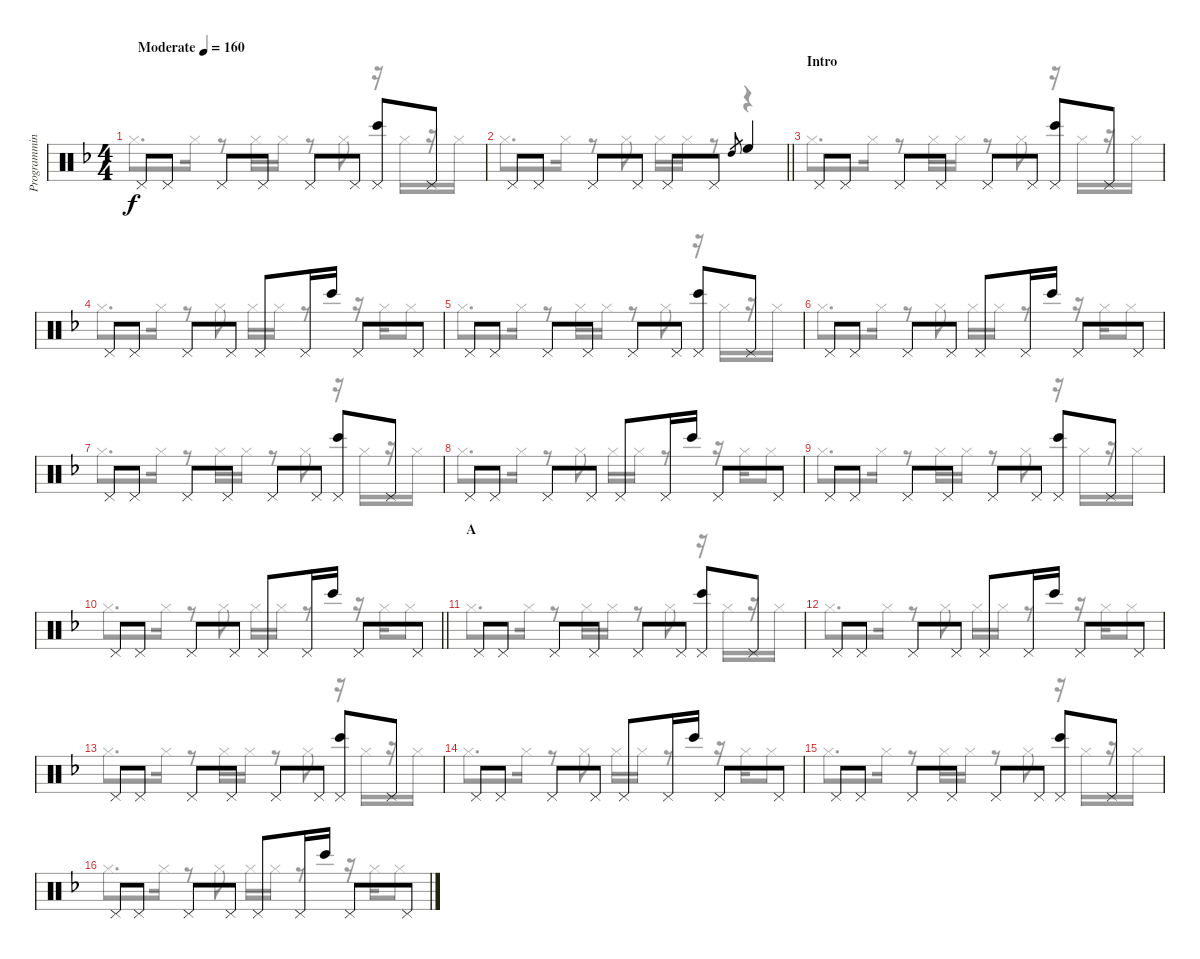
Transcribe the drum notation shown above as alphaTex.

\track ("Programming" "Programmin") {instrument percussion}
\staff {score}
\articulation defaults
\voice
\ts (4 4)
\tempo (160 "Moderate")
\clef neutral
\ks f "Pedal Hi-Hat (hit)".8{dy f} "Pedal Hi-Hat (hit)".8 "Pedal Hi-Hat (hit)".8 "Pedal Hi-Hat (hit)".8 "Pedal Hi-Hat (hit)".8 "Pedal Hi-Hat (hit)".8
("Pedal Hi-Hat (hit)" "Bongo High (hit)").8 "Pedal Hi-Hat (hit)".8 |
\barLineRight lightlight "Pedal Hi-Hat (hit)".8 "Pedal Hi-Hat (hit)".8 "Pedal Hi-Hat (hit)".8 "Pedal Hi-Hat (hit)".8 "Pedal Hi-Hat (hit)".8 "Pedal Hi-Hat (hit)".8 "High Tom (hit)".8{gr} "High Floor Tom (hit)".4
|
\section ("" "Intro")
"Pedal Hi-Hat (hit)".8 "Pedal Hi-Hat (hit)".8 "Pedal Hi-Hat (hit)".8 "Pedal Hi-Hat (hit)".8 "Pedal Hi-Hat (hit)".8 "Pedal Hi-Hat (hit)".8 ("Pedal Hi-Hat (hit)" "Bongo High (hit)").8 "Pedal Hi-Hat (hit)".8 |
"Pedal Hi-Hat (hit)".8 "Pedal Hi-Hat (hit)".8 "Pedal Hi-Hat (hit)".8 "Pedal Hi-Hat (hit)".8 "Pedal Hi-Hat (hit)".8 "Pedal Hi-Hat (hit)".16 "Bongo High (hit)".16 "Pedal Hi-Hat (hit)".8 "Pedal Hi-Hat (hit)".8 |
"Pedal Hi-Hat (hit)".8 "Pedal Hi-Hat (hit)".8 "Pedal Hi-Hat (hit)".8 "Pedal Hi-Hat (hit)".8 "Pedal Hi-Hat (hit)".8 "Pedal Hi-Hat (hit)".8 ("Pedal Hi-Hat (hit)" "Bongo High (hit)").8 "Pedal Hi-Hat (hit)".8 |
"Pedal Hi-Hat (hit)".8 "Pedal Hi-Hat (hit)".8 "Pedal Hi-Hat (hit)".8 "Pedal Hi-Hat (hit)".8 "Pedal Hi-Hat (hit)".8 "Pedal Hi-Hat (hit)".16 "Bongo High (hit)".16 "Pedal Hi-Hat (hit)".8 "Pedal Hi-Hat (hit)".8 |
"Pedal Hi-Hat (hit)".8 "Pedal Hi-Hat (hit)".8 "Pedal Hi-Hat (hit)".8 "Pedal Hi-Hat (hit)".8 "Pedal Hi-Hat (hit)".8 "Pedal Hi-Hat (hit)".8 ("Pedal Hi-Hat (hit)" "Bongo High (hit)").8 "Pedal Hi-Hat (hit)".8 |
"Pedal Hi-Hat (hit)".8 "Pedal Hi-Hat (hit)".8 "Pedal Hi-Hat (hit)".8 "Pedal Hi-Hat (hit)".8 "Pedal Hi-Hat (hit)".8 "Pedal Hi-Hat (hit)".16 "Bongo High (hit)".16 "Pedal Hi-Hat (hit)".8 "Pedal Hi-Hat (hit)".8 |
"Pedal Hi-Hat (hit)".8 "Pedal Hi-Hat (hit)".8 "Pedal Hi-Hat (hit)".8 "Pedal Hi-Hat (hit)".8 "Pedal Hi-Hat (hit)".8 "Pedal Hi-Hat (hit)".8 ("Pedal Hi-Hat (hit)" "Bongo High (hit)").8 "Pedal Hi-Hat (hit)".8 |
\barLineRight lightlight "Pedal Hi-Hat (hit)".8 "Pedal Hi-Hat (hit)".8 "Pedal Hi-Hat (hit)".8 "Pedal Hi-Hat (hit)".8 "Pedal Hi-Hat (hit)".8 "Pedal Hi-Hat (hit)".16 "Bongo High (hit)".16 "Pedal Hi-Hat (hit)".8 "Pedal Hi-Hat (hit)".8
|
\section ("" "A")
"Pedal Hi-Hat (hit)".8 "Pedal Hi-Hat (hit)".8 "Pedal Hi-Hat (hit)".8 "Pedal Hi-Hat (hit)".8 "Pedal Hi-Hat (hit)".8 "Pedal Hi-Hat (hit)".8 ("Pedal Hi-Hat (hit)" "Bongo High (hit)").8 "Pedal Hi-Hat (hit)".8 |
"Pedal Hi-Hat (hit)".8 "Pedal Hi-Hat (hit)".8 "Pedal Hi-Hat (hit)".8 "Pedal Hi-Hat (hit)".8 "Pedal Hi-Hat (hit)".8 "Pedal Hi-Hat (hit)".16 "Bongo High (hit)".16 "Pedal Hi-Hat (hit)".8 "Pedal Hi-Hat (hit)".8 |
"Pedal Hi-Hat (hit)".8 "Pedal Hi-Hat (hit)".8 "Pedal Hi-Hat (hit)".8 "Pedal Hi-Hat (hit)".8 "Pedal Hi-Hat (hit)".8 "Pedal Hi-Hat (hit)".8 ("Pedal Hi-Hat (hit)" "Bongo High (hit)").8 "Pedal Hi-Hat (hit)".8 |
"Pedal Hi-Hat (hit)".8 "Pedal Hi-Hat (hit)".8 "Pedal Hi-Hat (hit)".8 "Pedal Hi-Hat (hit)".8 "Pedal Hi-Hat (hit)".8 "Pedal Hi-Hat (hit)".16 "Bongo High (hit)".16 "Pedal Hi-Hat (hit)".8 "Pedal Hi-Hat (hit)".8 |
"Pedal Hi-Hat (hit)".8 "Pedal Hi-Hat (hit)".8 "Pedal Hi-Hat (hit)".8 "Pedal Hi-Hat (hit)".8 "Pedal Hi-Hat (hit)".8 "Pedal Hi-Hat (hit)".8 ("Pedal Hi-Hat (hit)" "Bongo High (hit)").8 "Pedal Hi-Hat (hit)".8 |
"Pedal Hi-Hat (hit)".8 "Pedal Hi-Hat (hit)".8 "Pedal Hi-Hat (hit)".8 "Pedal Hi-Hat (hit)".8 "Pedal Hi-Hat (hit)".8 "Pedal Hi-Hat (hit)".16 "Bongo High (hit)".16 "Pedal Hi-Hat (hit)".8 "Pedal Hi-Hat (hit)".8
\voice
\clef neutral
\ottava regular
\simile none
\ks f "Hi-Hat (closed)".8{d dy f} "Hi-Hat (closed)".16
r.8 "Hi-Hat (closed)".16 "Hi-Hat (closed)".16 r.8 "Hi-Hat (closed)".8 r.16 "Hi-Hat (closed)".16 r.16 "Hi-Hat (closed)".16 |
\barLineRight lightlight "Hi-Hat (closed)".8{d} "Hi-Hat (closed)".16
r.8 "Hi-Hat (closed)".8 "Hi-Hat (closed)".16 "Hi-Hat (closed)".16 r.8 r.4 |
"Hi-Hat (closed)".8{d} "Hi-Hat (closed)".16 r.8 "Hi-Hat (closed)".16 "Hi-Hat (closed)".16 r.8 "Hi-Hat (closed)".8 r.16 "Hi-Hat (closed)".16 r.16 "Hi-Hat (closed)".16 |
"Hi-Hat (closed)".8{d} "Hi-Hat (closed)".16 r.8 "Hi-Hat (closed)".8 "Hi-Hat (closed)".16 "Hi-Hat (closed)".16 r.8 r.16 "Hi-Hat (closed)".16 "Hi-Hat (closed)".8 |
"Hi-Hat (closed)".8{d} "Hi-Hat (closed)".16 r.8 "Hi-Hat (closed)".16 "Hi-Hat (closed)".16 r.8 "Hi-Hat (closed)".8 r.16 "Hi-Hat (closed)".16 r.16 "Hi-Hat (closed)".16 |
"Hi-Hat (closed)".8{d} "Hi-Hat (closed)".16 r.8 "Hi-Hat (closed)".8 "Hi-Hat (closed)".16 "Hi-Hat (closed)".16 r.8 r.16 "Hi-Hat (closed)".16 "Hi-Hat (closed)".8 |
"Hi-Hat (closed)".8{d} "Hi-Hat (closed)".16 r.8 "Hi-Hat (closed)".16 "Hi-Hat (closed)".16 r.8 "Hi-Hat (closed)".8 r.16 "Hi-Hat (closed)".16 r.16 "Hi-Hat (closed)".16 |
"Hi-Hat (closed)".8{d} "Hi-Hat (closed)".16 r.8 "Hi-Hat (closed)".8 "Hi-Hat (closed)".16 "Hi-Hat (closed)".16 r.8 r.16 "Hi-Hat (closed)".16 "Hi-Hat (closed)".8 |
"Hi-Hat (closed)".8{d} "Hi-Hat (closed)".16 r.8 "Hi-Hat (closed)".16 "Hi-Hat (closed)".16 r.8 "Hi-Hat (closed)".8 r.16 "Hi-Hat (closed)".16 r.16 "Hi-Hat (closed)".16 |
\barLineRight lightlight "Hi-Hat (closed)".8{d} "Hi-Hat (closed)".16
r.8 "Hi-Hat (closed)".8 "Hi-Hat (closed)".16 "Hi-Hat (closed)".16 r.8 r.16 "Hi-Hat (closed)".16 "Hi-Hat (closed)".8 |
"Hi-Hat (closed)".8{d} "Hi-Hat (closed)".16 r.8 "Hi-Hat (closed)".16 "Hi-Hat (closed)".16 r.8 "Hi-Hat (closed)".8 r.16 "Hi-Hat (closed)".16 r.16 "Hi-Hat (closed)".16 |
"Hi-Hat (closed)".8{d} "Hi-Hat (closed)".16 r.8 "Hi-Hat (closed)".8 "Hi-Hat (closed)".16 "Hi-Hat (closed)".16 r.8 r.16 "Hi-Hat (closed)".16 "Hi-Hat (closed)".8 |
"Hi-Hat (closed)".8{d} "Hi-Hat (closed)".16 r.8 "Hi-Hat (closed)".16 "Hi-Hat (closed)".16 r.8 "Hi-Hat (closed)".8 r.16 "Hi-Hat (closed)".16 r.16 "Hi-Hat (closed)".16 |
"Hi-Hat (closed)".8{d} "Hi-Hat (closed)".16 r.8 "Hi-Hat (closed)".8 "Hi-Hat (closed)".16 "Hi-Hat (closed)".16 r.8 r.16 "Hi-Hat (closed)".16 "Hi-Hat (closed)".8 |
"Hi-Hat (closed)".8{d} "Hi-Hat (closed)".16 r.8 "Hi-Hat (closed)".16 "Hi-Hat (closed)".16 r.8 "Hi-Hat (closed)".8 r.16 "Hi-Hat (closed)".16 r.16 "Hi-Hat (closed)".16 |
"Hi-Hat (closed)".8{d} "Hi-Hat (closed)".16 r.8 "Hi-Hat (closed)".8 "Hi-Hat (closed)".16 "Hi-Hat (closed)".16 r.8 r.16 "Hi-Hat (closed)".16 "Hi-Hat (closed)".8
